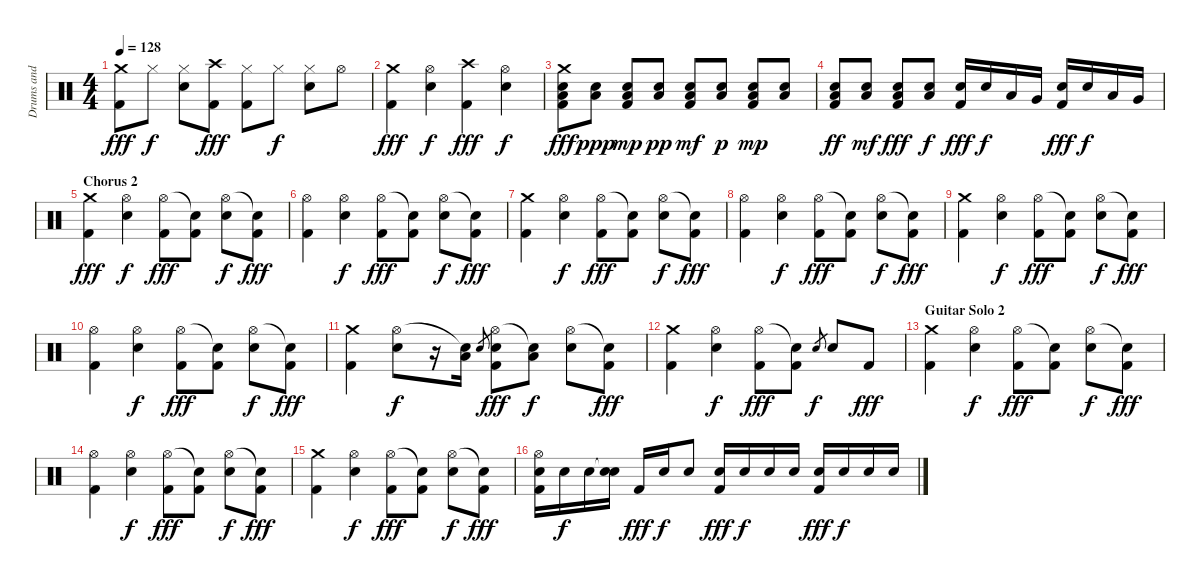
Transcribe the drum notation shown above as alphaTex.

\track ("Drums and Percussion" "Drums and ") {instrument percussion}
\staff {score}
\articulation defaults
\ts (4 4)
\tempo 128
\clef neutral
\ks c
("Crash medium (hit)" "Kick (hit) 2").8{dy fff} "Hi-Hat (closed)".8{dy f} ("Hi-Hat (closed)" "Electric Snare (hit)").8 ("Crash high (hit)" "Kick (hit) 2").8{dy fff} ("Hi-Hat (closed)" "Kick (hit) 2").8 "Hi-Hat (closed)".8{dy f} ("Hi-Hat (closed)" "Electric Snare (hit)").8 "Hi-Hat (open)".8 |
("Crash medium (hit)" "Kick (hit) 2").4{dy fff} ("Hi-Hat (open)" "Electric Snare (hit)").4{dy f} ("Crash high (hit)" "Kick (hit) 2").4{dy fff} ("Hi-Hat (open)" "Electric Snare (hit)").4{dy f} |
("Crash medium (hit)" "Electric Snare (hit)" "Low Floor Tom (hit)" "Kick (hit) 2").8{dy fff} ("Electric Snare (hit)" "Low Floor Tom (hit)").8{dy ppp} ("Electric Snare (hit)" "Low Floor Tom (hit)" "Kick (hit) 2").8{dy mp} ("Electric Snare (hit)" "Low Floor Tom (hit)").8{dy pp} ("Electric Snare (hit)" "Low Floor Tom (hit)" "Kick (hit) 2").8{dy mf} ("Electric Snare (hit)" "Low Floor Tom (hit)").8{dy p} ("Electric Snare (hit)" "Low Floor Tom (hit)" "Kick (hit) 2").8{dy mp} ("Electric Snare (hit)" "Low Floor Tom (hit)").8 |
("Electric Snare (hit)" "Low Floor Tom (hit)" "Kick (hit) 2").8{dy ff} ("Electric Snare (hit)" "Low Floor Tom (hit)").8{dy mf} ("Electric Snare (hit)" "Low Floor Tom (hit)" "Kick (hit) 2").8{dy fff} ("Electric Snare (hit)" "Low Floor Tom (hit)").8{dy f} ("Electric Snare (hit)" "Kick (hit) 2").16{dy fff} "Electric Snare (hit)".16{dy f} "Low Tom (hit)".16 "Very Low Tom (hit)".16 ("Electric Snare (hit)" "Kick (hit) 2").16{dy fff} "Electric Snare (hit)".16{dy f} "Low Tom (hit)".16 "Very Low Tom (hit)".16 |
\section ("" "Chorus 2")
("Crash medium (hit)" "Kick (hit) 2").4{dy fff} ("Hi-Hat (open)" "Electric Snare (hit)").4{dy f} ("Hi-Hat (open)" "Kick (hit) 2").8{dy fff} ("Snare (hit)"{t} "Kick (hit) 2").8 ("Hi-Hat (open)" "Electric Snare (hit)").8{dy f} ("Snare (hit)"{t} "Kick (hit) 2").8{dy fff} |
("Hi-Hat (open)" "Kick (hit) 2").4 ("Hi-Hat (open)" "Electric Snare (hit)").4{dy f} ("Hi-Hat (open)" "Kick (hit) 2").8{dy fff} ("Snare (hit)"{t} "Kick (hit) 2").8 ("Hi-Hat (open)" "Electric Snare (hit)").8{dy f} ("Snare (hit)"{t} "Kick (hit) 2").8{dy fff} |
("Crash medium (hit)" "Kick (hit) 2").4 ("Hi-Hat (open)" "Electric Snare (hit)").4{dy f} ("Hi-Hat (open)" "Kick (hit) 2").8{dy fff} ("Snare (hit)"{t} "Kick (hit) 2").8 ("Hi-Hat (open)" "Electric Snare (hit)").8{dy f} ("Snare (hit)"{t} "Kick (hit) 2").8{dy fff} |
("Hi-Hat (open)" "Kick (hit) 2").4 ("Hi-Hat (open)" "Electric Snare (hit)").4{dy f} ("Hi-Hat (open)" "Kick (hit) 2").8{dy fff} ("Snare (hit)"{t} "Kick (hit) 2").8 ("Hi-Hat (open)" "Electric Snare (hit)").8{dy f} ("Snare (hit)"{t} "Kick (hit) 2").8{dy fff} |
("Crash medium (hit)" "Kick (hit) 2").4 ("Hi-Hat (open)" "Electric Snare (hit)").4{dy f} ("Hi-Hat (open)" "Kick (hit) 2").8{dy fff} ("Snare (hit)"{t} "Kick (hit) 2").8 ("Hi-Hat (open)" "Electric Snare (hit)").8{dy f} ("Snare (hit)"{t} "Kick (hit) 2").8{dy fff} |
("Hi-Hat (open)" "Kick (hit) 2").4 ("Hi-Hat (open)" "Electric Snare (hit)").4{dy f} ("Hi-Hat (open)" "Kick (hit) 2").8{dy fff} ("Snare (hit)"{t} "Kick (hit) 2").8 ("Hi-Hat (open)" "Electric Snare (hit)").8{dy f} ("Snare (hit)"{t} "Kick (hit) 2").8{dy fff} |
("Crash medium (hit)" "Kick (hit) 2").4 ("Hi-Hat (open)" "Electric Snare (hit)").8{dy f} r.16 ("Snare (hit)"{t} "Low Tom (hit)").16 "Electric Snare (hit)".8{gr} ("Hi-Hat (open)" "Electric Snare (hit)" "Kick (hit) 2").8{dy fff} ("Snare (hit)"{t} "Low Tom (hit)").8{dy f} ("Hi-Hat (open)" "Electric Snare (hit)").8 ("Snare (hit)"{t} "Kick (hit) 2").8{dy fff} |
("Crash medium (hit)" "Kick (hit) 2").4 ("Hi-Hat (open)" "Electric Snare (hit)").4{dy f} ("Hi-Hat (open)" "Kick (hit) 2").8{dy fff} ("Snare (hit)"{t} "Kick (hit) 2").8 "Electric Snare (hit)".8{gr dy f} "Electric Snare (hit)".8 "Kick (hit) 2".8{dy fff} |
\section ("" "Guitar Solo 2")
("Crash medium (hit)" "Kick (hit) 2").4 ("Hi-Hat (open)" "Electric Snare (hit)").4{dy f} ("Hi-Hat (open)" "Kick (hit) 2").8{dy fff} ("Snare (hit)"{t} "Kick (hit) 2").8 ("Hi-Hat (open)" "Electric Snare (hit)").8{dy f} ("Snare (hit)"{t} "Kick (hit) 2").8{dy fff} |
("Hi-Hat (open)" "Kick (hit) 2").4 ("Hi-Hat (open)" "Electric Snare (hit)").4{dy f} ("Hi-Hat (open)" "Kick (hit) 2").8{dy fff} ("Snare (hit)"{t} "Kick (hit) 2").8 ("Hi-Hat (open)" "Electric Snare (hit)").8{dy f} ("Snare (hit)"{t} "Kick (hit) 2").8{dy fff} |
("Crash medium (hit)" "Kick (hit) 2").4 ("Hi-Hat (open)" "Electric Snare (hit)").4{dy f} ("Hi-Hat (open)" "Kick (hit) 2").8{dy fff} ("Snare (hit)"{t} "Kick (hit) 2").8 ("Hi-Hat (open)" "Electric Snare (hit)").8{dy f} ("Snare (hit)"{t} "Kick (hit) 2").8{dy fff} |
("Hi-Hat (open)" "Electric Snare (hit)" "Kick (hit) 2").16 "Electric Snare (hit)".16{dy f} "Electric Snare (hit)".16 ("Snare (hit)"{t} "Electric Snare (hit)").16 "Kick (hit) 2".16{dy fff} "Electric Snare (hit)".16{dy f} "Electric Snare (hit)".8 ("Electric Snare (hit)" "Kick (hit) 2").16{dy fff} "Electric Snare (hit)".16{dy f} "Electric Snare (hit)".16 "Electric Snare (hit)".16 ("Electric Snare (hit)" "Kick (hit) 2").16{dy fff} "Electric Snare (hit)".16{dy f} "Electric Snare (hit)".16 "Electric Snare (hit)".16
